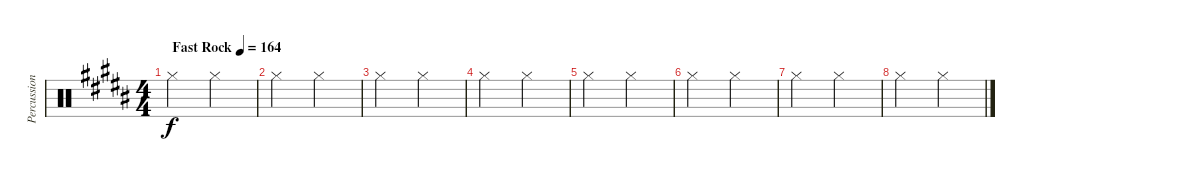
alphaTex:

\track ("Percussion" "Percussion") {instrument percussion}
\staff {score}
\articulation defaults
\ts (4 4)
\tempo (164 "Fast Rock")
\clef neutral
\ks b "Hi-Hat (closed)".2{dy f} "Hi-Hat (closed)".2
|
"Hi-Hat (closed)".2 "Hi-Hat (closed)".2 |
"Hi-Hat (closed)".2 "Hi-Hat (closed)".2 |
"Hi-Hat (closed)".2 "Hi-Hat (closed)".2 |
"Hi-Hat (closed)".2 "Hi-Hat (closed)".2 |
"Hi-Hat (closed)".2 "Hi-Hat (closed)".2 |
"Hi-Hat (closed)".2{beam merge} "Hi-Hat (closed)".2 |
"Hi-Hat (closed)".2 "Hi-Hat (closed)".2
